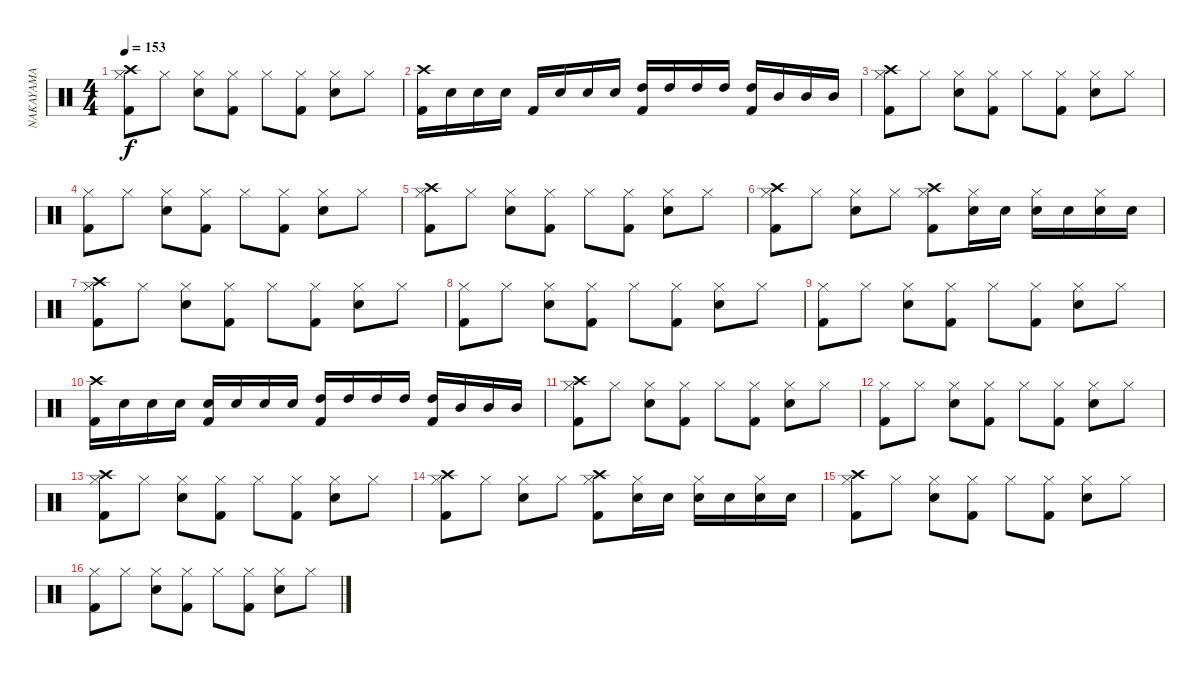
\track ("NAKAYAMA" "NAKAYAMA") {instrument percussion}
\staff {score}
\articulation defaults
\ts (4 4)
\tempo 153
\clef neutral
\ks c
("Crash high (hit)" "Hi-Hat (closed)" "Kick (hit) 2").8{dy f} "Hi-Hat (closed)".8 ("Hi-Hat (closed)" "Snare (hit) 2").8 ("Hi-Hat (closed)" "Kick (hit) 2").8 "Hi-Hat (closed)".8 ("Hi-Hat (closed)" "Kick (hit) 2").8 ("Hi-Hat (closed)" "Snare (hit) 2").8 "Hi-Hat (closed)".8 |
("Crash high (hit)" "Kick (hit) 2").16 "Snare (hit) 2".16 "Snare (hit) 2".16 "Snare (hit) 2".16 "Kick (hit) 2".16 "Snare (hit) 2".16 "Snare (hit) 2".16 "Snare (hit) 2".16 ("High Tom (hit)" "Kick (hit) 2").16 "High Tom (hit)".16 "High Tom (hit)".16 "High Tom (hit)".16 ("High Tom (hit)" "Kick (hit) 2").16 "Mid Tom (hit)".16 "Mid Tom (hit)".16 "Mid Tom (hit)".16 |
("Crash high (hit)" "Hi-Hat (closed)" "Kick (hit) 2").8 "Hi-Hat (closed)".8 ("Hi-Hat (closed)" "Snare (hit) 2").8 ("Hi-Hat (closed)" "Kick (hit) 2").8 "Hi-Hat (closed)".8 ("Hi-Hat (closed)" "Kick (hit) 2").8 ("Hi-Hat (closed)" "Snare (hit) 2").8 "Hi-Hat (closed)".8 |
("Hi-Hat (closed)" "Kick (hit) 2").8 "Hi-Hat (closed)".8 ("Hi-Hat (closed)" "Snare (hit) 2").8 ("Hi-Hat (closed)" "Kick (hit) 2").8 "Hi-Hat (closed)".8 ("Hi-Hat (closed)" "Kick (hit) 2").8 ("Hi-Hat (closed)" "Snare (hit) 2").8 "Hi-Hat (closed)".8 |
("Crash high (hit)" "Hi-Hat (closed)" "Kick (hit) 2").8 "Hi-Hat (closed)".8 ("Hi-Hat (closed)" "Snare (hit) 2").8 ("Hi-Hat (closed)" "Kick (hit) 2").8 "Hi-Hat (closed)".8 ("Hi-Hat (closed)" "Kick (hit) 2").8 ("Hi-Hat (closed)" "Snare (hit) 2").8 "Hi-Hat (closed)".8 |
("Crash high (hit)" "Hi-Hat (closed)" "Kick (hit) 2").8 "Hi-Hat (closed)".8 ("Hi-Hat (closed)" "Snare (hit) 2").8 "Hi-Hat (closed)".8 ("Crash high (hit)" "Hi-Hat (closed)" "Kick (hit) 2").8 ("Hi-Hat (closed)" "Snare (hit) 2").16 "Snare (hit) 2".16 ("Hi-Hat (closed)" "Snare (hit) 2").16 "Snare (hit) 2".16 ("Hi-Hat (closed)" "Snare (hit) 2").16 "Snare (hit) 2".16 |
("Crash high (hit)" "Hi-Hat (closed)" "Kick (hit) 2").8 "Hi-Hat (closed)".8 ("Hi-Hat (closed)" "Snare (hit) 2").8 ("Hi-Hat (closed)" "Kick (hit) 2").8 "Hi-Hat (closed)".8 ("Hi-Hat (closed)" "Kick (hit) 2").8 ("Hi-Hat (closed)" "Snare (hit) 2").8 "Hi-Hat (closed)".8 |
("Hi-Hat (closed)" "Kick (hit) 2").8 "Hi-Hat (closed)".8 ("Hi-Hat (closed)" "Snare (hit) 2").8 ("Hi-Hat (closed)" "Kick (hit) 2").8 "Hi-Hat (closed)".8 ("Hi-Hat (closed)" "Kick (hit) 2").8 ("Hi-Hat (closed)" "Snare (hit) 2").8 "Hi-Hat (closed)".8 |
("Hi-Hat (closed)" "Kick (hit) 2").8 "Hi-Hat (closed)".8 ("Hi-Hat (closed)" "Snare (hit) 2").8 ("Hi-Hat (closed)" "Kick (hit) 2").8 "Hi-Hat (closed)".8 ("Hi-Hat (closed)" "Kick (hit) 2").8 ("Hi-Hat (closed)" "Snare (hit) 2").8 "Hi-Hat (closed)".8 |
("Crash high (hit)" "Kick (hit) 2").16 "Snare (hit) 2".16 "Snare (hit) 2".16 "Snare (hit) 2".16 ("Snare (hit) 2" "Kick (hit) 2").16 "Snare (hit) 2".16 "Snare (hit) 2".16 "Snare (hit) 2".16 ("High Tom (hit)" "Kick (hit) 2").16 "High Tom (hit)".16 "High Tom (hit)".16 "High Tom (hit)".16 ("High Tom (hit)" "Kick (hit) 2").16 "Mid Tom (hit)".16 "Mid Tom (hit)".16 "Mid Tom (hit)".16 |
("Crash high (hit)" "Hi-Hat (closed)" "Kick (hit) 2").8 "Hi-Hat (closed)".8 ("Hi-Hat (closed)" "Snare (hit) 2").8 ("Hi-Hat (closed)" "Kick (hit) 2").8 "Hi-Hat (closed)".8 ("Hi-Hat (closed)" "Kick (hit) 2").8 ("Hi-Hat (closed)" "Snare (hit) 2").8 "Hi-Hat (closed)".8 |
("Hi-Hat (closed)" "Kick (hit) 2").8 "Hi-Hat (closed)".8 ("Hi-Hat (closed)" "Snare (hit) 2").8 ("Hi-Hat (closed)" "Kick (hit) 2").8 "Hi-Hat (closed)".8 ("Hi-Hat (closed)" "Kick (hit) 2").8 ("Hi-Hat (closed)" "Snare (hit) 2").8 "Hi-Hat (closed)".8 |
("Crash high (hit)" "Hi-Hat (closed)" "Kick (hit) 2").8 "Hi-Hat (closed)".8 ("Hi-Hat (closed)" "Snare (hit) 2").8 ("Hi-Hat (closed)" "Kick (hit) 2").8 "Hi-Hat (closed)".8 ("Hi-Hat (closed)" "Kick (hit) 2").8 ("Hi-Hat (closed)" "Snare (hit) 2").8 "Hi-Hat (closed)".8 |
("Crash high (hit)" "Hi-Hat (closed)" "Kick (hit) 2").8 "Hi-Hat (closed)".8 ("Hi-Hat (closed)" "Snare (hit) 2").8 "Hi-Hat (closed)".8 ("Crash high (hit)" "Hi-Hat (closed)" "Kick (hit) 2").8 ("Hi-Hat (closed)" "Snare (hit) 2").16 "Snare (hit) 2".16 ("Hi-Hat (closed)" "Snare (hit) 2").16 "Snare (hit) 2".16 ("Hi-Hat (closed)" "Snare (hit) 2").16 "Snare (hit) 2".16 |
("Crash high (hit)" "Hi-Hat (closed)" "Kick (hit) 2").8 "Hi-Hat (closed)".8 ("Hi-Hat (closed)" "Snare (hit) 2").8 ("Hi-Hat (closed)" "Kick (hit) 2").8 "Hi-Hat (closed)".8 ("Hi-Hat (closed)" "Kick (hit) 2").8 ("Hi-Hat (closed)" "Snare (hit) 2").8 "Hi-Hat (closed)".8 |
("Hi-Hat (closed)" "Kick (hit) 2").8 "Hi-Hat (closed)".8 ("Hi-Hat (closed)" "Snare (hit) 2").8 ("Hi-Hat (closed)" "Kick (hit) 2").8 "Hi-Hat (closed)".8 ("Hi-Hat (closed)" "Kick (hit) 2").8 ("Hi-Hat (closed)" "Snare (hit) 2").8 "Hi-Hat (closed)".8
